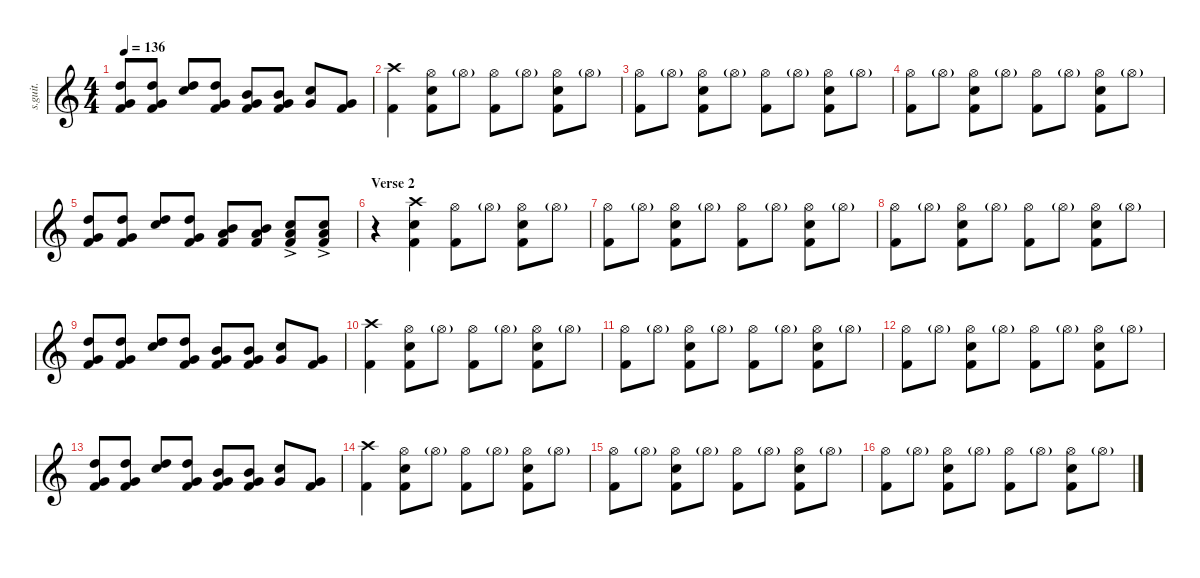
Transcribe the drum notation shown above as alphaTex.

\defaultSystemsLayout 4
\hideDynamics
\bracketExtendMode nobrackets
\track ("Joey Jordison" "s.guit.") {instrument percussion}
\staff {score}
\articulation defaults
\ts (4 4)
\tempo 136
\clef g2
\ks c
("Kick (hit) 2" "High Tom (hit)" "Very Low Tom (hit)").8{lyrics (0 "") lyrics (1 "") lyrics (2 "") lyrics (3 "") lyrics (4 "") dy fff} ("Kick (hit) 2" "High Tom (hit)" "Very Low Tom (hit)").8{lyrics (0 "") lyrics (1 "") lyrics (2 "") lyrics (3 "") lyrics (4 "")} ("Snare (hit) 2" "High Tom (hit)").8{lyrics (0 "") lyrics (1 "") lyrics (2 "") lyrics (3 "") lyrics (4 "")} ("Kick (hit) 2" "High Tom (hit)" "Very Low Tom (hit)").8{lyrics (0 "") lyrics (1 "") lyrics (2 "") lyrics (3 "") lyrics (4 "")} ("Kick (hit) 2" "Mid Tom (hit)" "Very Low Tom (hit)").8{lyrics (0 "") lyrics (1 "") lyrics (2 "") lyrics (3 "") lyrics (4 "")} ("Kick (hit) 2" "Mid Tom (hit)" "Very Low Tom (hit)").8{lyrics (0 "") lyrics (1 "") lyrics (2 "") lyrics (3 "") lyrics (4 "")} ("Snare (hit) 2" "Very Low Tom (hit)").8{lyrics (0 "") lyrics (1 "") lyrics (2 "") lyrics (3 "") lyrics (4 "")} ("Kick (hit) 2" "Very Low Tom (hit)").8{lyrics (0 "") lyrics (1 "") lyrics (2 "") lyrics (3 "") lyrics (4 "")} |
("Crash high (hit)" "Kick (hit) 2").4{lyrics (0 "") lyrics (1 "") lyrics (2 "") lyrics (3 "") lyrics (4 "")} ("Hi-Hat (open)" "Kick (hit) 2" "Snare (hit) 2").8{lyrics (0 "") lyrics (1 "") lyrics (2 "") lyrics (3 "") lyrics (4 "")} "Hi-Hat (open)"{g}.8{lyrics (0 "") lyrics (1 "") lyrics (2 "") lyrics (3 "") lyrics (4 "")} ("Hi-Hat (open)" "Kick (hit) 2").8{lyrics (0 "") lyrics (1 "") lyrics (2 "") lyrics (3 "") lyrics (4 "")} "Hi-Hat (open)"{g}.8{lyrics (0 "") lyrics (1 "") lyrics (2 "") lyrics (3 "") lyrics (4 "")} ("Hi-Hat (open)" "Kick (hit) 2" "Snare (hit) 2").8{lyrics (0 "") lyrics (1 "") lyrics (2 "") lyrics (3 "") lyrics (4 "")} "Hi-Hat (open)"{g}.8{lyrics (0 "") lyrics (1 "") lyrics (2 "") lyrics (3 "") lyrics (4 "")} |
("Hi-Hat (open)" "Kick (hit) 2").8{lyrics (0 "") lyrics (1 "") lyrics (2 "") lyrics (3 "") lyrics (4 "")} "Hi-Hat (open)"{g}.8{lyrics (0 "") lyrics (1 "") lyrics (2 "") lyrics (3 "") lyrics (4 "")} ("Hi-Hat (open)" "Kick (hit) 2" "Snare (hit) 2").8{lyrics (0 "") lyrics (1 "") lyrics (2 "") lyrics (3 "") lyrics (4 "")} "Hi-Hat (open)"{g}.8{lyrics (0 "") lyrics (1 "") lyrics (2 "") lyrics (3 "") lyrics (4 "")} ("Hi-Hat (open)" "Kick (hit) 2").8{lyrics (0 "") lyrics (1 "") lyrics (2 "") lyrics (3 "") lyrics (4 "")} "Hi-Hat (open)"{g}.8{lyrics (0 "") lyrics (1 "") lyrics (2 "") lyrics (3 "") lyrics (4 "")} ("Hi-Hat (open)" "Kick (hit) 2" "Snare (hit) 2").8{lyrics (0 "") lyrics (1 "") lyrics (2 "") lyrics (3 "") lyrics (4 "")} "Hi-Hat (open)"{g}.8{lyrics (0 "") lyrics (1 "") lyrics (2 "") lyrics (3 "") lyrics (4 "")} |
("Hi-Hat (open)" "Kick (hit) 2").8{lyrics (0 "") lyrics (1 "") lyrics (2 "") lyrics (3 "") lyrics (4 "")} "Hi-Hat (open)"{g}.8{lyrics (0 "") lyrics (1 "") lyrics (2 "") lyrics (3 "") lyrics (4 "")} ("Hi-Hat (open)" "Kick (hit) 2" "Snare (hit) 2").8{lyrics (0 "") lyrics (1 "") lyrics (2 "") lyrics (3 "") lyrics (4 "")} "Hi-Hat (open)"{g}.8{lyrics (0 "") lyrics (1 "") lyrics (2 "") lyrics (3 "") lyrics (4 "")} ("Hi-Hat (open)" "Kick (hit) 2").8{lyrics (0 "") lyrics (1 "") lyrics (2 "") lyrics (3 "") lyrics (4 "")} "Hi-Hat (open)"{g}.8{lyrics (0 "") lyrics (1 "") lyrics (2 "") lyrics (3 "") lyrics (4 "")} ("Hi-Hat (open)" "Kick (hit) 2" "Snare (hit) 2").8{lyrics (0 "") lyrics (1 "") lyrics (2 "") lyrics (3 "") lyrics (4 "")} "Hi-Hat (open)"{g}.8{lyrics (0 "") lyrics (1 "") lyrics (2 "") lyrics (3 "") lyrics (4 "")} |
("Kick (hit) 2" "High Tom (hit)" "Very Low Tom (hit)").8{lyrics (0 "") lyrics (1 "") lyrics (2 "") lyrics (3 "") lyrics (4 "")} ("Kick (hit) 2" "High Tom (hit)" "Very Low Tom (hit)").8{lyrics (0 "") lyrics (1 "") lyrics (2 "") lyrics (3 "") lyrics (4 "")} ("Snare (hit) 2" "High Tom (hit)").8{lyrics (0 "") lyrics (1 "") lyrics (2 "") lyrics (3 "") lyrics (4 "")} ("Kick (hit) 2" "High Tom (hit)" "Very Low Tom (hit)").8{lyrics (0 "") lyrics (1 "") lyrics (2 "") lyrics (3 "") lyrics (4 "")} ("Low Tom (hit)" "Kick (hit) 2" "Mid Tom (hit)").8{lyrics (0 "") lyrics (1 "") lyrics (2 "") lyrics (3 "") lyrics (4 "")} ("Kick (hit) 2" "Low Tom (hit)" "Mid Tom (hit)").8{lyrics (0 "") lyrics (1 "") lyrics (2 "") lyrics (3 "") lyrics (4 "")} ("Snare (hit) 2"{ac} "Low Tom (hit)" "Kick (hit) 2").8{lyrics (0 "") lyrics (1 "") lyrics (2 "") lyrics (3 "") lyrics (4 "")} ("Kick (hit) 2" "Low Tom (hit)" "Snare (hit) 2"{ac}).8{lyrics (0 "") lyrics (1 "") lyrics (2 "") lyrics (3 "") lyrics (4 "")} |
\section ("" "Verse 2")
r.4 ("Snare (hit) 2" "Kick (hit) 2" "Crash high (hit)").4{lyrics (0 "") lyrics (1 "") lyrics (2 "") lyrics (3 "") lyrics (4 "")} ("Hi-Hat (open)" "Kick (hit) 2").8{lyrics (0 "") lyrics (1 "") lyrics (2 "") lyrics (3 "") lyrics (4 "")} "Hi-Hat (open)"{g}.8{lyrics (0 "") lyrics (1 "") lyrics (2 "") lyrics (3 "") lyrics (4 "")} ("Hi-Hat (open)" "Kick (hit) 2" "Snare (hit) 2").8{lyrics (0 "") lyrics (1 "") lyrics (2 "") lyrics (3 "") lyrics (4 "")} "Hi-Hat (open)"{g}.8{lyrics (0 "") lyrics (1 "") lyrics (2 "") lyrics (3 "") lyrics (4 "")} |
("Hi-Hat (open)" "Kick (hit) 2").8{lyrics (0 "") lyrics (1 "") lyrics (2 "") lyrics (3 "") lyrics (4 "")} "Hi-Hat (open)"{g}.8{lyrics (0 "") lyrics (1 "") lyrics (2 "") lyrics (3 "") lyrics (4 "")} ("Hi-Hat (open)" "Kick (hit) 2" "Snare (hit) 2").8{lyrics (0 "") lyrics (1 "") lyrics (2 "") lyrics (3 "") lyrics (4 "")} "Hi-Hat (open)"{g}.8{lyrics (0 "") lyrics (1 "") lyrics (2 "") lyrics (3 "") lyrics (4 "")} ("Hi-Hat (open)" "Kick (hit) 2").8{lyrics (0 "") lyrics (1 "") lyrics (2 "") lyrics (3 "") lyrics (4 "")} "Hi-Hat (open)"{g}.8{lyrics (0 "") lyrics (1 "") lyrics (2 "") lyrics (3 "") lyrics (4 "")} ("Hi-Hat (open)" "Kick (hit) 2" "Snare (hit) 2").8{lyrics (0 "") lyrics (1 "") lyrics (2 "") lyrics (3 "") lyrics (4 "")} "Hi-Hat (open)"{g}.8{lyrics (0 "") lyrics (1 "") lyrics (2 "") lyrics (3 "") lyrics (4 "")} |
("Hi-Hat (open)" "Kick (hit) 2").8{lyrics (0 "") lyrics (1 "") lyrics (2 "") lyrics (3 "") lyrics (4 "")} "Hi-Hat (open)"{g}.8{lyrics (0 "") lyrics (1 "") lyrics (2 "") lyrics (3 "") lyrics (4 "")} ("Hi-Hat (open)" "Kick (hit) 2" "Snare (hit) 2").8{lyrics (0 "") lyrics (1 "") lyrics (2 "") lyrics (3 "") lyrics (4 "")} "Hi-Hat (open)"{g}.8{lyrics (0 "") lyrics (1 "") lyrics (2 "") lyrics (3 "") lyrics (4 "")} ("Hi-Hat (open)" "Kick (hit) 2").8{lyrics (0 "") lyrics (1 "") lyrics (2 "") lyrics (3 "") lyrics (4 "")} "Hi-Hat (open)"{g}.8{lyrics (0 "") lyrics (1 "") lyrics (2 "") lyrics (3 "") lyrics (4 "")} ("Hi-Hat (open)" "Kick (hit) 2" "Snare (hit) 2").8{lyrics (0 "") lyrics (1 "") lyrics (2 "") lyrics (3 "") lyrics (4 "")} "Hi-Hat (open)"{g}.8{lyrics (0 "") lyrics (1 "") lyrics (2 "") lyrics (3 "") lyrics (4 "")} |
("Kick (hit) 2" "High Tom (hit)" "Very Low Tom (hit)").8{lyrics (0 "") lyrics (1 "") lyrics (2 "") lyrics (3 "") lyrics (4 "")} ("Kick (hit) 2" "High Tom (hit)" "Very Low Tom (hit)").8{lyrics (0 "") lyrics (1 "") lyrics (2 "") lyrics (3 "") lyrics (4 "")} ("Snare (hit) 2" "High Tom (hit)").8{lyrics (0 "") lyrics (1 "") lyrics (2 "") lyrics (3 "") lyrics (4 "")} ("Kick (hit) 2" "High Tom (hit)" "Very Low Tom (hit)").8{lyrics (0 "") lyrics (1 "") lyrics (2 "") lyrics (3 "") lyrics (4 "")} ("Kick (hit) 2" "Mid Tom (hit)" "Very Low Tom (hit)").8{lyrics (0 "") lyrics (1 "") lyrics (2 "") lyrics (3 "") lyrics (4 "")} ("Kick (hit) 2" "Mid Tom (hit)" "Very Low Tom (hit)").8{lyrics (0 "") lyrics (1 "") lyrics (2 "") lyrics (3 "") lyrics (4 "")} ("Snare (hit) 2" "Very Low Tom (hit)").8{lyrics (0 "") lyrics (1 "") lyrics (2 "") lyrics (3 "") lyrics (4 "")} ("Kick (hit) 2" "Very Low Tom (hit)").8{lyrics (0 "") lyrics (1 "") lyrics (2 "") lyrics (3 "") lyrics (4 "")} |
("Crash high (hit)" "Kick (hit) 2").4{lyrics (0 "") lyrics (1 "") lyrics (2 "") lyrics (3 "") lyrics (4 "")} ("Hi-Hat (open)" "Kick (hit) 2" "Snare (hit) 2").8{lyrics (0 "") lyrics (1 "") lyrics (2 "") lyrics (3 "") lyrics (4 "")} "Hi-Hat (open)"{g}.8{lyrics (0 "") lyrics (1 "") lyrics (2 "") lyrics (3 "") lyrics (4 "")} ("Hi-Hat (open)" "Kick (hit) 2").8{lyrics (0 "") lyrics (1 "") lyrics (2 "") lyrics (3 "") lyrics (4 "")} "Hi-Hat (open)"{g}.8{lyrics (0 "") lyrics (1 "") lyrics (2 "") lyrics (3 "") lyrics (4 "")} ("Hi-Hat (open)" "Kick (hit) 2" "Snare (hit) 2").8{lyrics (0 "") lyrics (1 "") lyrics (2 "") lyrics (3 "") lyrics (4 "")} "Hi-Hat (open)"{g}.8{lyrics (0 "") lyrics (1 "") lyrics (2 "") lyrics (3 "") lyrics (4 "")} |
("Hi-Hat (open)" "Kick (hit) 2").8{lyrics (0 "") lyrics (1 "") lyrics (2 "") lyrics (3 "") lyrics (4 "")} "Hi-Hat (open)"{g}.8{lyrics (0 "") lyrics (1 "") lyrics (2 "") lyrics (3 "") lyrics (4 "")} ("Hi-Hat (open)" "Kick (hit) 2" "Snare (hit) 2").8{lyrics (0 "") lyrics (1 "") lyrics (2 "") lyrics (3 "") lyrics (4 "")} "Hi-Hat (open)"{g}.8{lyrics (0 "") lyrics (1 "") lyrics (2 "") lyrics (3 "") lyrics (4 "")} ("Hi-Hat (open)" "Kick (hit) 2").8{lyrics (0 "") lyrics (1 "") lyrics (2 "") lyrics (3 "") lyrics (4 "")} "Hi-Hat (open)"{g}.8{lyrics (0 "") lyrics (1 "") lyrics (2 "") lyrics (3 "") lyrics (4 "")} ("Hi-Hat (open)" "Kick (hit) 2" "Snare (hit) 2").8{lyrics (0 "") lyrics (1 "") lyrics (2 "") lyrics (3 "") lyrics (4 "")} "Hi-Hat (open)"{g}.8{lyrics (0 "") lyrics (1 "") lyrics (2 "") lyrics (3 "") lyrics (4 "")} |
("Hi-Hat (open)" "Kick (hit) 2").8{lyrics (0 "") lyrics (1 "") lyrics (2 "") lyrics (3 "") lyrics (4 "")} "Hi-Hat (open)"{g}.8{lyrics (0 "") lyrics (1 "") lyrics (2 "") lyrics (3 "") lyrics (4 "")} ("Hi-Hat (open)" "Kick (hit) 2" "Snare (hit) 2").8{lyrics (0 "") lyrics (1 "") lyrics (2 "") lyrics (3 "") lyrics (4 "")} "Hi-Hat (open)"{g}.8{lyrics (0 "") lyrics (1 "") lyrics (2 "") lyrics (3 "") lyrics (4 "")} ("Hi-Hat (open)" "Kick (hit) 2").8{lyrics (0 "") lyrics (1 "") lyrics (2 "") lyrics (3 "") lyrics (4 "")} "Hi-Hat (open)"{g}.8{lyrics (0 "") lyrics (1 "") lyrics (2 "") lyrics (3 "") lyrics (4 "")} ("Hi-Hat (open)" "Kick (hit) 2" "Snare (hit) 2").8{lyrics (0 "") lyrics (1 "") lyrics (2 "") lyrics (3 "") lyrics (4 "")} "Hi-Hat (open)"{g}.8{lyrics (0 "") lyrics (1 "") lyrics (2 "") lyrics (3 "") lyrics (4 "")} |
("Kick (hit) 2" "High Tom (hit)" "Very Low Tom (hit)").8{lyrics (0 "") lyrics (1 "") lyrics (2 "") lyrics (3 "") lyrics (4 "")} ("Kick (hit) 2" "High Tom (hit)" "Very Low Tom (hit)").8{lyrics (0 "") lyrics (1 "") lyrics (2 "") lyrics (3 "") lyrics (4 "")} ("Snare (hit) 2" "High Tom (hit)").8{lyrics (0 "") lyrics (1 "") lyrics (2 "") lyrics (3 "") lyrics (4 "")} ("Kick (hit) 2" "High Tom (hit)" "Very Low Tom (hit)").8{lyrics (0 "") lyrics (1 "") lyrics (2 "") lyrics (3 "") lyrics (4 "")} ("Kick (hit) 2" "Mid Tom (hit)" "Very Low Tom (hit)").8{lyrics (0 "") lyrics (1 "") lyrics (2 "") lyrics (3 "") lyrics (4 "")} ("Kick (hit) 2" "Mid Tom (hit)" "Very Low Tom (hit)").8{lyrics (0 "") lyrics (1 "") lyrics (2 "") lyrics (3 "") lyrics (4 "")} ("Snare (hit) 2" "Very Low Tom (hit)").8{lyrics (0 "") lyrics (1 "") lyrics (2 "") lyrics (3 "") lyrics (4 "")} ("Kick (hit) 2" "Very Low Tom (hit)").8{lyrics (0 "") lyrics (1 "") lyrics (2 "") lyrics (3 "") lyrics (4 "")} |
("Crash high (hit)" "Kick (hit) 2").4{lyrics (0 "") lyrics (1 "") lyrics (2 "") lyrics (3 "") lyrics (4 "")} ("Hi-Hat (open)" "Kick (hit) 2" "Snare (hit) 2").8{lyrics (0 "") lyrics (1 "") lyrics (2 "") lyrics (3 "") lyrics (4 "")} "Hi-Hat (open)"{g}.8{lyrics (0 "") lyrics (1 "") lyrics (2 "") lyrics (3 "") lyrics (4 "")} ("Hi-Hat (open)" "Kick (hit) 2").8{lyrics (0 "") lyrics (1 "") lyrics (2 "") lyrics (3 "") lyrics (4 "")} "Hi-Hat (open)"{g}.8{lyrics (0 "") lyrics (1 "") lyrics (2 "") lyrics (3 "") lyrics (4 "")} ("Hi-Hat (open)" "Kick (hit) 2" "Snare (hit) 2").8{lyrics (0 "") lyrics (1 "") lyrics (2 "") lyrics (3 "") lyrics (4 "")} "Hi-Hat (open)"{g}.8{lyrics (0 "") lyrics (1 "") lyrics (2 "") lyrics (3 "") lyrics (4 "")} |
("Hi-Hat (open)" "Kick (hit) 2").8{lyrics (0 "") lyrics (1 "") lyrics (2 "") lyrics (3 "") lyrics (4 "")} "Hi-Hat (open)"{g}.8{lyrics (0 "") lyrics (1 "") lyrics (2 "") lyrics (3 "") lyrics (4 "")} ("Hi-Hat (open)" "Kick (hit) 2" "Snare (hit) 2").8{lyrics (0 "") lyrics (1 "") lyrics (2 "") lyrics (3 "") lyrics (4 "")} "Hi-Hat (open)"{g}.8{lyrics (0 "") lyrics (1 "") lyrics (2 "") lyrics (3 "") lyrics (4 "")} ("Hi-Hat (open)" "Kick (hit) 2").8{lyrics (0 "") lyrics (1 "") lyrics (2 "") lyrics (3 "") lyrics (4 "")} "Hi-Hat (open)"{g}.8{lyrics (0 "") lyrics (1 "") lyrics (2 "") lyrics (3 "") lyrics (4 "")} ("Hi-Hat (open)" "Kick (hit) 2" "Snare (hit) 2").8{lyrics (0 "") lyrics (1 "") lyrics (2 "") lyrics (3 "") lyrics (4 "")} "Hi-Hat (open)"{g}.8{lyrics (0 "") lyrics (1 "") lyrics (2 "") lyrics (3 "") lyrics (4 "")} |
("Hi-Hat (open)" "Kick (hit) 2").8{lyrics (0 "") lyrics (1 "") lyrics (2 "") lyrics (3 "") lyrics (4 "")} "Hi-Hat (open)"{g}.8{lyrics (0 "") lyrics (1 "") lyrics (2 "") lyrics (3 "") lyrics (4 "")} ("Hi-Hat (open)" "Kick (hit) 2" "Snare (hit) 2").8{lyrics (0 "") lyrics (1 "") lyrics (2 "") lyrics (3 "") lyrics (4 "")} "Hi-Hat (open)"{g}.8{lyrics (0 "") lyrics (1 "") lyrics (2 "") lyrics (3 "") lyrics (4 "")} ("Hi-Hat (open)" "Kick (hit) 2").8{lyrics (0 "") lyrics (1 "") lyrics (2 "") lyrics (3 "") lyrics (4 "")} "Hi-Hat (open)"{g}.8{lyrics (0 "") lyrics (1 "") lyrics (2 "") lyrics (3 "") lyrics (4 "")} ("Hi-Hat (open)" "Kick (hit) 2" "Snare (hit) 2").8{lyrics (0 "") lyrics (1 "") lyrics (2 "") lyrics (3 "") lyrics (4 "")} "Hi-Hat (open)"{g}.8{lyrics (0 "") lyrics (1 "") lyrics (2 "") lyrics (3 "") lyrics (4 "")}
